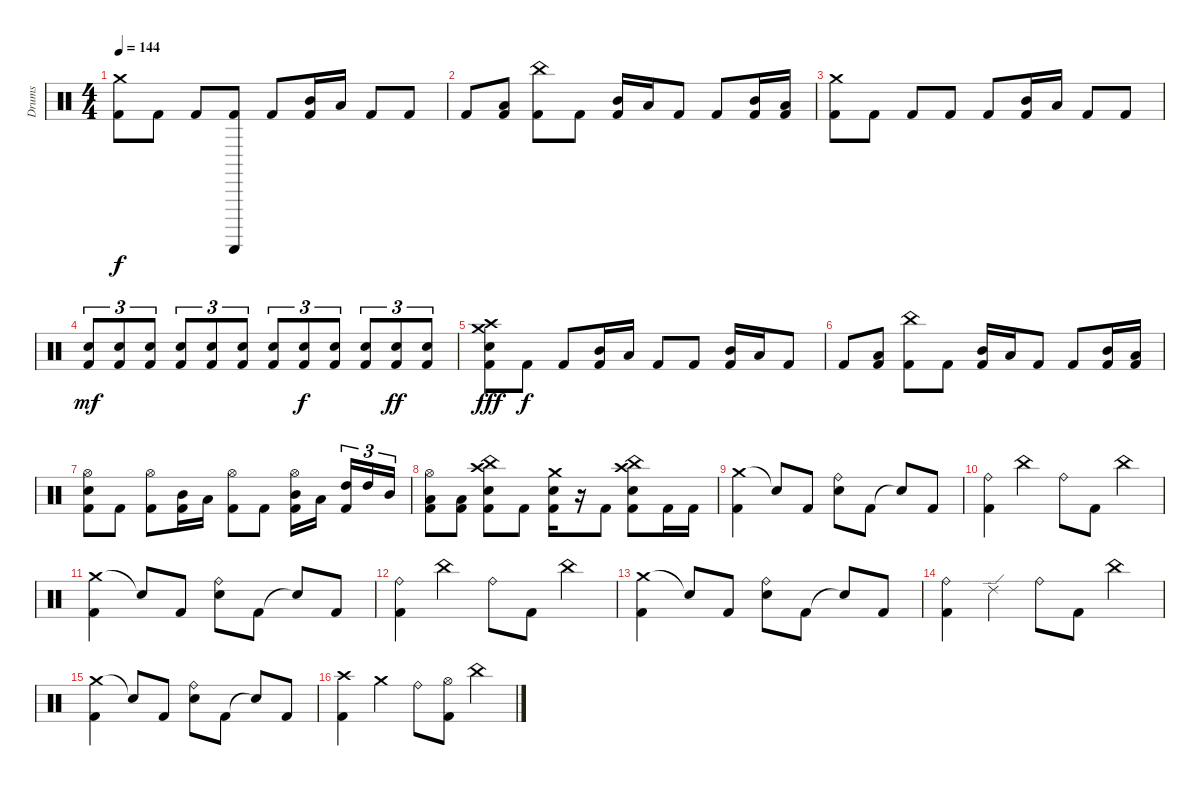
\track ("Drums" "Drums") {instrument percussion}
\staff {score}
\articulation defaults
\ts (4 4)
\section ("" "")
\tempo 144
\clef neutral
\ks c
("Crash medium (hit)" "Kick (hit) 2").8{dy f} "Kick (hit) 2".8 "Kick (hit) 2".8 ("Guiro (scrap-return)" "Kick (hit) 2").8 "Kick (hit) 2".8 ("Mid Tom (hit)" "Kick (hit) 2").16 "Low Tom (hit)".16 "Kick (hit) 2".8 "Kick (hit) 2".8 |
"Kick (hit) 2".8 ("Low Tom (hit)" "Kick (hit) 2").8 ("China (hit)" "Kick (hit) 2").8 "Kick (hit) 2".8 ("Mid Tom (hit)" "Kick (hit) 2").16 "Low Tom (hit)".16 "Kick (hit) 2".8 "Kick (hit) 2".8 ("Mid Tom (hit)" "Kick (hit) 2").16 ("Low Tom (hit)" "Kick (hit) 2").16 |
("Crash medium (hit)" "Kick (hit) 2").8 "Kick (hit) 2".8 "Kick (hit) 2".8 "Kick (hit) 2".8 "Kick (hit) 2".8 ("Mid Tom (hit)" "Kick (hit) 2").16 "Low Tom (hit)".16 "Kick (hit) 2".8 "Kick (hit) 2".8 |
("Snare (hit) 2" "Kick (hit) 2").8{tu (3 2) dy mf} ("Snare (hit) 2" "Kick (hit) 2").8{tu (3 2)} ("Snare (hit) 2" "Kick (hit) 2").8{tu (3 2)} ("Snare (hit) 2" "Kick (hit) 2").8{tu (3 2)} ("Snare (hit) 2" "Kick (hit) 2").8{tu (3 2)} ("Snare (hit) 2" "Kick (hit) 2").8{tu (3 2)} ("Snare (hit) 2" "Kick (hit) 2").8{tu (3 2)} ("Snare (hit) 2" "Kick (hit) 2").8{tu (3 2) dy f} ("Snare (hit) 2" "Kick (hit) 2").8{tu (3 2)} ("Snare (hit) 2" "Kick (hit) 2").8{tu (3 2)} ("Snare (hit) 2" "Kick (hit) 2").8{tu (3 2) dy ff} ("Snare (hit) 2" "Kick (hit) 2").8{tu (3 2)} |
("Crash medium (hit)" "Crash high (hit)" "Snare (hit) 2" "Kick (hit) 2").8{dy fff} "Kick (hit) 2".8{dy f} "Kick (hit) 2".8 ("Mid Tom (hit)" "Kick (hit) 2").16 "Low Tom (hit)".16 "Kick (hit) 2".8 "Kick (hit) 2".8 ("Mid Tom (hit)" "Kick (hit) 2").16 "Low Tom (hit)".16 "Kick (hit) 2".8 |
"Kick (hit) 2".8 ("Low Tom (hit)" "Kick (hit) 2").8 ("China (hit)" "Kick (hit) 2").8 "Kick (hit) 2".8 ("Mid Tom (hit)" "Kick (hit) 2").16 "Low Tom (hit)".16 "Kick (hit) 2".8 "Kick (hit) 2".8 ("Mid Tom (hit)" "Kick (hit) 2").16 ("Low Tom (hit)" "Kick (hit) 2").16 |
("Hi-Hat (open)" "Snare (hit) 2" "Kick (hit) 2").8 "Kick (hit) 2".8 ("Hi-Hat (open)" "Kick (hit) 2").8 ("Mid Tom (hit)" "Kick (hit) 2").16 "Low Tom (hit)".16 ("Hi-Hat (open)" "Kick (hit) 2").8 "Kick (hit) 2".8 ("Hi-Hat (open)" "Mid Tom (hit)" "Kick (hit) 2").16 "Low Tom (hit)".16 ("High Tom (hit)" "Kick (hit) 2").16{tu (3 2)} "High Tom (hit)".16{tu (3 2)} "Mid Tom (hit)".16{tu (3 2)} |
("Hi-Hat (open)" "Low Tom (hit)" "Kick (hit) 2").8 ("Low Tom (hit)" "Kick (hit) 2").8 ("Crash high (hit)" "China (hit)" "Snare (hit) 2" "Kick (hit) 2").8 "Kick (hit) 2".8 ("Crash medium (hit)" "Snare (hit) 2" "Kick (hit) 2").16 r.16 "Kick (hit) 2".8 ("Crash high (hit)" "China (hit)" "Snare (hit) 2" "Kick (hit) 2").8 "Kick (hit) 2".16 "Kick (hit) 2".16 |
\section ("" "")
("Crash medium (hit)" "Kick (hit) 2").4 "Snare (hit)"{t}.8 "Kick (hit) 2".8 ("Ride (bell)" "Snare (hit) 2").8 "Kick (hit) 2".8 "Snare (hit)"{t}.8 "Kick (hit) 2".8 |
("Ride (bell)" "Kick (hit) 2").4 "China (hit)".4 "Ride (bell)".8 "Kick (hit) 2".8 "China (hit)".4 |
("Crash medium (hit)" "Kick (hit) 2").4 "Snare (hit)"{t}.8 "Kick (hit) 2".8 ("Ride (bell)" "Snare (hit) 2").8 "Kick (hit) 2".8 "Snare (hit)"{t}.8 "Kick (hit) 2".8 |
("Ride (bell)" "Kick (hit) 2").4 "China (hit)".4 "Ride (bell)".8 "Kick (hit) 2".8 "China (hit)".4 |
("Crash medium (hit)" "Kick (hit) 2").4 "Snare (hit)"{t}.8 "Kick (hit) 2".8 ("Ride (bell)" "Snare (hit) 2").8 "Kick (hit) 2".8 "Snare (hit)"{t}.8 "Kick (hit) 2".8 |
("Ride (bell)" "Kick (hit) 2").4 "Ride (edge) 2".4 "Ride (bell)".8 "Kick (hit) 2".8 "China (hit)".4 |
("Crash medium (hit)" "Kick (hit) 2").4 "Snare (hit)"{t}.8 "Kick (hit) 2".8 ("Ride (bell)" "Snare (hit) 2").8 "Kick (hit) 2".8 "Snare (hit)"{t}.8 "Kick (hit) 2".8 |
("Crash high (hit)" "Kick (hit) 2").4 "Crash medium (hit)".4 "Ride (bell)".8 ("Hi-Hat (open)" "Kick (hit) 2").8 "China (hit)".4
